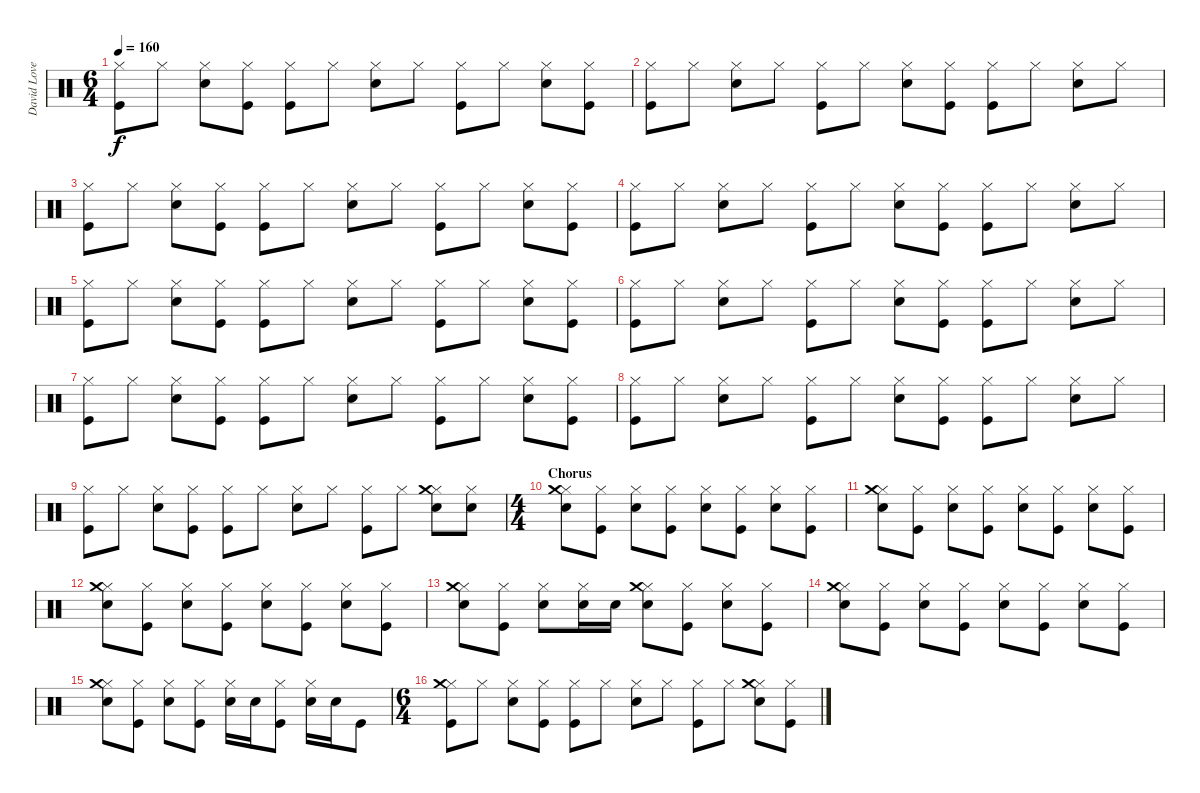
\track ("David Lovering" "David Love") {instrument percussion}
\staff {score}
\articulation defaults
\ts (6 4)
\tempo 160
\clef neutral
\ks c
("Hi-Hat (closed)" "Kick (hit)").8{dy f} "Hi-Hat (closed)".8 ("Hi-Hat (closed)" "Snare (hit) 2").8 ("Hi-Hat (closed)" "Kick (hit)").8 ("Hi-Hat (closed)" "Kick (hit)").8 "Hi-Hat (closed)".8 ("Hi-Hat (closed)" "Snare (hit) 2").8 "Hi-Hat (closed)".8 ("Hi-Hat (closed)" "Kick (hit)").8 "Hi-Hat (closed)".8 ("Hi-Hat (closed)" "Snare (hit) 2").8 ("Hi-Hat (closed)" "Kick (hit)").8 |
("Hi-Hat (closed)" "Kick (hit)").8 "Hi-Hat (closed)".8 ("Hi-Hat (closed)" "Snare (hit) 2").8 "Hi-Hat (closed)".8 ("Hi-Hat (closed)" "Kick (hit)").8 "Hi-Hat (closed)".8 ("Hi-Hat (closed)" "Snare (hit) 2").8 ("Hi-Hat (closed)" "Kick (hit)").8 ("Hi-Hat (closed)" "Kick (hit)").8 "Hi-Hat (closed)".8 ("Hi-Hat (closed)" "Snare (hit) 2").8 "Hi-Hat (closed)".8 |
("Hi-Hat (closed)" "Kick (hit)").8 "Hi-Hat (closed)".8 ("Hi-Hat (closed)" "Snare (hit) 2").8 ("Hi-Hat (closed)" "Kick (hit)").8 ("Hi-Hat (closed)" "Kick (hit)").8 "Hi-Hat (closed)".8 ("Hi-Hat (closed)" "Snare (hit) 2").8 "Hi-Hat (closed)".8 ("Hi-Hat (closed)" "Kick (hit)").8 "Hi-Hat (closed)".8 ("Hi-Hat (closed)" "Snare (hit) 2").8 ("Hi-Hat (closed)" "Kick (hit)").8 |
("Hi-Hat (closed)" "Kick (hit)").8 "Hi-Hat (closed)".8 ("Hi-Hat (closed)" "Snare (hit) 2").8 "Hi-Hat (closed)".8 ("Hi-Hat (closed)" "Kick (hit)").8 "Hi-Hat (closed)".8 ("Hi-Hat (closed)" "Snare (hit) 2").8 ("Hi-Hat (closed)" "Kick (hit)").8 ("Hi-Hat (closed)" "Kick (hit)").8 "Hi-Hat (closed)".8 ("Hi-Hat (closed)" "Snare (hit) 2").8 "Hi-Hat (closed)".8 |
("Hi-Hat (closed)" "Kick (hit)").8 "Hi-Hat (closed)".8 ("Hi-Hat (closed)" "Snare (hit) 2").8 ("Hi-Hat (closed)" "Kick (hit)").8 ("Hi-Hat (closed)" "Kick (hit)").8 "Hi-Hat (closed)".8 ("Hi-Hat (closed)" "Snare (hit) 2").8 "Hi-Hat (closed)".8 ("Hi-Hat (closed)" "Kick (hit)").8 "Hi-Hat (closed)".8 ("Hi-Hat (closed)" "Snare (hit) 2").8 ("Hi-Hat (closed)" "Kick (hit)").8 |
("Hi-Hat (closed)" "Kick (hit)").8 "Hi-Hat (closed)".8 ("Hi-Hat (closed)" "Snare (hit) 2").8 "Hi-Hat (closed)".8 ("Hi-Hat (closed)" "Kick (hit)").8 "Hi-Hat (closed)".8 ("Hi-Hat (closed)" "Snare (hit) 2").8 ("Hi-Hat (closed)" "Kick (hit)").8 ("Hi-Hat (closed)" "Kick (hit)").8 "Hi-Hat (closed)".8 ("Hi-Hat (closed)" "Snare (hit) 2").8 "Hi-Hat (closed)".8 |
("Hi-Hat (closed)" "Kick (hit)").8 "Hi-Hat (closed)".8 ("Hi-Hat (closed)" "Snare (hit) 2").8 ("Hi-Hat (closed)" "Kick (hit)").8 ("Hi-Hat (closed)" "Kick (hit)").8 "Hi-Hat (closed)".8 ("Hi-Hat (closed)" "Snare (hit) 2").8 "Hi-Hat (closed)".8 ("Hi-Hat (closed)" "Kick (hit)").8 "Hi-Hat (closed)".8 ("Hi-Hat (closed)" "Snare (hit) 2").8 ("Hi-Hat (closed)" "Kick (hit)").8 |
("Hi-Hat (closed)" "Kick (hit)").8 "Hi-Hat (closed)".8 ("Hi-Hat (closed)" "Snare (hit) 2").8 "Hi-Hat (closed)".8 ("Hi-Hat (closed)" "Kick (hit)").8 "Hi-Hat (closed)".8 ("Hi-Hat (closed)" "Snare (hit) 2").8 ("Hi-Hat (closed)" "Kick (hit)").8 ("Hi-Hat (closed)" "Kick (hit)").8 "Hi-Hat (closed)".8 ("Hi-Hat (closed)" "Snare (hit) 2").8 "Hi-Hat (closed)".8 |
("Hi-Hat (closed)" "Kick (hit)").8 "Hi-Hat (closed)".8 ("Hi-Hat (closed)" "Snare (hit) 2").8 ("Hi-Hat (closed)" "Kick (hit)").8 ("Hi-Hat (closed)" "Kick (hit)").8 "Hi-Hat (closed)".8 ("Hi-Hat (closed)" "Snare (hit) 2").8 "Hi-Hat (closed)".8 ("Hi-Hat (closed)" "Kick (hit)").8 "Hi-Hat (closed)".8 ("Hi-Hat (closed)" "Crash medium (hit)" "Snare (hit) 2").8 ("Hi-Hat (closed)" "Snare (hit) 2").8 |
\ts (4 4)
\section ("" "Chorus")
("Hi-Hat (closed)" "Crash medium (hit)" "Snare (hit) 2").8 ("Hi-Hat (closed)" "Kick (hit)").8 ("Hi-Hat (closed)" "Snare (hit) 2").8 ("Hi-Hat (closed)" "Kick (hit)").8 ("Hi-Hat (closed)" "Snare (hit) 2").8 ("Hi-Hat (closed)" "Kick (hit)").8 ("Hi-Hat (closed)" "Snare (hit) 2").8 ("Hi-Hat (closed)" "Kick (hit)").8 |
("Hi-Hat (closed)" "Crash medium (hit)" "Snare (hit) 2").8 ("Hi-Hat (closed)" "Kick (hit)").8 ("Hi-Hat (closed)" "Snare (hit) 2").8 ("Hi-Hat (closed)" "Kick (hit)").8 ("Hi-Hat (closed)" "Snare (hit) 2").8 ("Hi-Hat (closed)" "Kick (hit)").8 ("Hi-Hat (closed)" "Snare (hit) 2").8 ("Hi-Hat (closed)" "Kick (hit)").8 |
("Hi-Hat (closed)" "Crash medium (hit)" "Snare (hit) 2").8 ("Hi-Hat (closed)" "Kick (hit)").8 ("Hi-Hat (closed)" "Snare (hit) 2").8 ("Hi-Hat (closed)" "Kick (hit)").8 ("Hi-Hat (closed)" "Snare (hit) 2").8 ("Hi-Hat (closed)" "Kick (hit)").8 ("Hi-Hat (closed)" "Snare (hit) 2").8 ("Hi-Hat (closed)" "Kick (hit)").8 |
("Hi-Hat (closed)" "Crash medium (hit)" "Snare (hit) 2").8 ("Hi-Hat (closed)" "Kick (hit)").8 ("Hi-Hat (closed)" "Snare (hit) 2").8 ("Hi-Hat (closed)" "Snare (hit) 2").16 "Snare (hit) 2".16 ("Hi-Hat (closed)" "Crash medium (hit)" "Snare (hit) 2").8 ("Hi-Hat (closed)" "Kick (hit)").8 ("Hi-Hat (closed)" "Snare (hit) 2").8 ("Hi-Hat (closed)" "Kick (hit)").8 |
("Hi-Hat (closed)" "Crash medium (hit)" "Snare (hit) 2").8 ("Hi-Hat (closed)" "Kick (hit)").8 ("Hi-Hat (closed)" "Snare (hit) 2").8 ("Hi-Hat (closed)" "Kick (hit)").8 ("Hi-Hat (closed)" "Snare (hit) 2").8 ("Hi-Hat (closed)" "Kick (hit)").8 ("Hi-Hat (closed)" "Snare (hit) 2").8 ("Hi-Hat (closed)" "Kick (hit)").8 |
("Hi-Hat (closed)" "Crash medium (hit)" "Snare (hit) 2").8 ("Hi-Hat (closed)" "Kick (hit)").8 ("Hi-Hat (closed)" "Snare (hit) 2").8 ("Hi-Hat (closed)" "Kick (hit)").8 ("Hi-Hat (closed)" "Snare (hit) 2").16 "Snare (hit) 2".16 ("Hi-Hat (closed)" "Kick (hit)").8 ("Hi-Hat (closed)" "Snare (hit) 2").16 "Snare (hit) 2".16 "Kick (hit)".8 |
\ts (6 4)
("Hi-Hat (closed)" "Crash medium (hit)" "Kick (hit)").8 "Hi-Hat (closed)".8 ("Hi-Hat (closed)" "Snare (hit) 2").8 ("Hi-Hat (closed)" "Kick (hit)").8 ("Hi-Hat (closed)" "Kick (hit)").8 "Hi-Hat (closed)".8 ("Hi-Hat (closed)" "Snare (hit) 2").8 "Hi-Hat (closed)".8 ("Hi-Hat (closed)" "Kick (hit)").8 "Hi-Hat (closed)".8 ("Hi-Hat (closed)" "Crash medium (hit)" "Snare (hit) 2").8 ("Hi-Hat (closed)" "Kick (hit)").8
